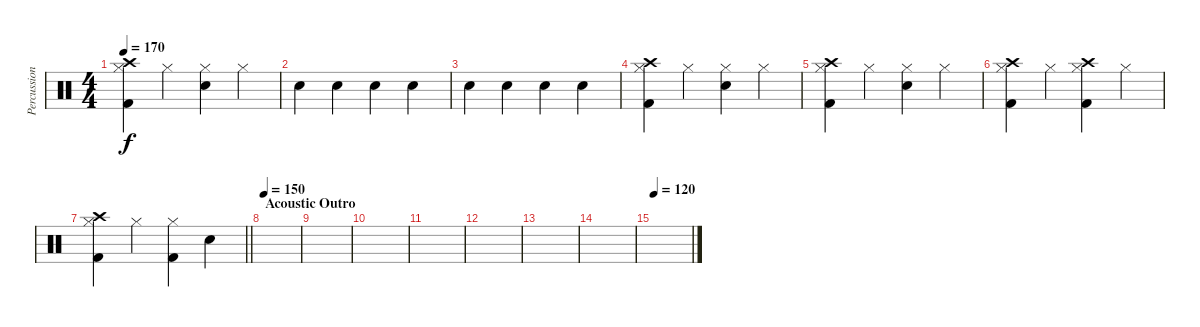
\track ("Percussion" "Percussion") {instrument percussion}
\staff {score}
\articulation defaults
\ts (4 4)
\tempo 170
\clef neutral
\ks c
("Hi-Hat (closed)" "Kick (hit) 2" "Crash high (hit)").4{dy f} "Hi-Hat (closed)".4 ("Hi-Hat (closed)" "Electric Snare (hit)").4 "Hi-Hat (closed)".4 |
"Snare (hit) 2".4 "Snare (hit) 2".4 "Snare (hit) 2".4 "Electric Snare (hit)".4 |
"Snare (hit) 2".4 "Snare (hit) 2".4 "Snare (hit) 2".4 "Electric Snare (hit)".4 |
("Hi-Hat (closed)" "Kick (hit) 2" "Crash high (hit)").4 "Hi-Hat (closed)".4 ("Hi-Hat (closed)" "Electric Snare (hit)").4 "Hi-Hat (closed)".4 |
("Hi-Hat (closed)" "Kick (hit) 2" "Crash high (hit)").4 "Hi-Hat (closed)".4 ("Hi-Hat (closed)" "Electric Snare (hit)").4 "Hi-Hat (closed)".4 |
("Hi-Hat (closed)" "Kick (hit) 2" "Crash high (hit)").4 "Hi-Hat (closed)".4 ("Hi-Hat (closed)" "Kick (hit) 2" "Crash high (hit)").4 "Hi-Hat (closed)".4 |
\barLineRight lightlight
("Hi-Hat (closed)" "Kick (hit) 2" "Crash high (hit)").4 "Hi-Hat (closed)".4 ("Hi-Hat (closed)" "Kick (hit) 2").4 "Electric Snare (hit)".4 |
\section ("" "Acoustic Outro")
\tempo 150
|
|
|
|
|
|
|
\tempo 120
